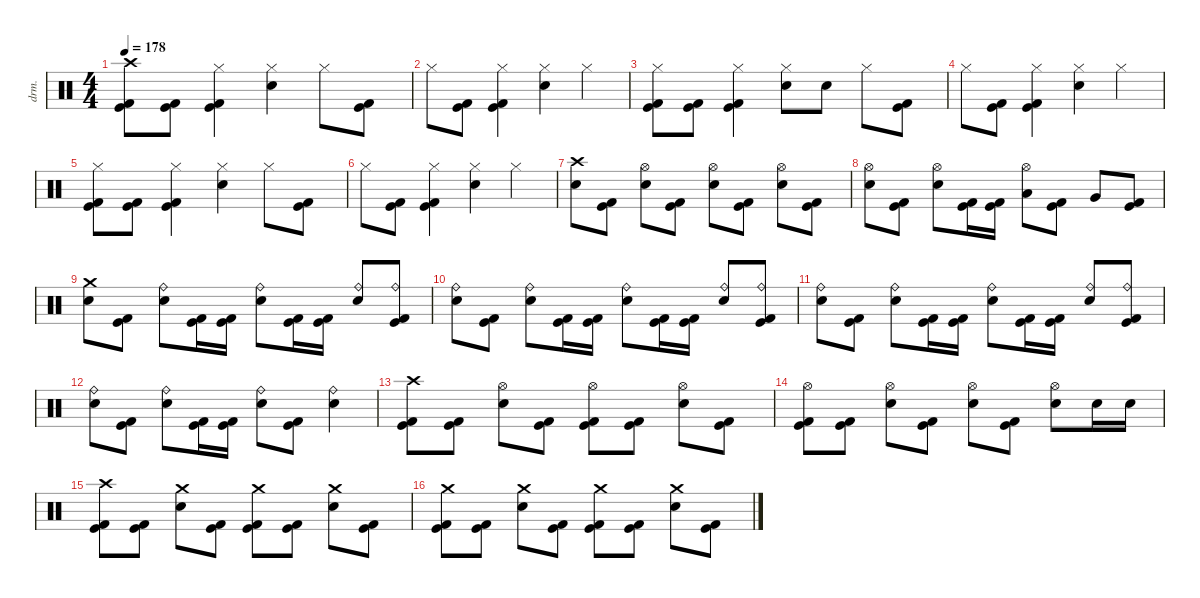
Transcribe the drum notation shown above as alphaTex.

\defaultSystemsLayout 4
\hideDynamics
\bracketExtendMode nobrackets
\otherSystemsTrackNameOrientation horizontal
\track ("Drums" "drm.") {instrument percussion}
\staff {score}
\articulation defaults
\ts (4 4)
\tempo 178
\clef neutral
\ks c
("Kick (hit)" "Kick (hit) 2" "Crash high (hit)").8{dy ff beam Down} ("Kick (hit)" "Kick (hit) 2").8{beam Down} ("Kick (hit)" "Kick (hit) 2" "Hi-Hat (closed)").4{beam Down} ("Snare (hit) 2" "Hi-Hat (closed)").4{beam Down} "Hi-Hat (closed)".8{beam Down} ("Kick (hit)" "Kick (hit) 2").8{beam Down} |
"Hi-Hat (closed)".8{beam Down} ("Kick (hit)" "Kick (hit) 2").8{beam Down} ("Kick (hit)" "Kick (hit) 2" "Hi-Hat (closed)").4{beam Down} ("Snare (hit) 2" "Hi-Hat (closed)").4{beam Down} "Hi-Hat (closed)".4{beam Down} |
("Kick (hit)" "Kick (hit) 2" "Hi-Hat (closed)").8{beam Down} ("Kick (hit)" "Kick (hit) 2").8{beam Down} ("Kick (hit)" "Kick (hit) 2" "Hi-Hat (closed)").4{beam Down} ("Snare (hit) 2" "Hi-Hat (closed)").8{beam Down} "Snare (hit) 2".8{dy f beam Down} "Hi-Hat (closed)".8{dy ff beam Down} ("Kick (hit)" "Kick (hit) 2").8{beam Down} |
"Hi-Hat (closed)".8{beam Down} ("Kick (hit)" "Kick (hit) 2").8{beam Down} ("Kick (hit)" "Kick (hit) 2" "Hi-Hat (closed)").4{beam Down} ("Snare (hit) 2" "Hi-Hat (closed)").4{beam Down} "Hi-Hat (closed)".4{beam Down} |
("Kick (hit)" "Kick (hit) 2" "Hi-Hat (closed)").8{beam Down} ("Kick (hit)" "Kick (hit) 2").8{beam Down} ("Kick (hit)" "Kick (hit) 2" "Hi-Hat (closed)").4{beam Down} ("Snare (hit) 2" "Hi-Hat (closed)").4{beam Down} "Hi-Hat (closed)".8{beam Down} ("Kick (hit)" "Kick (hit) 2").8{beam Down} |
"Hi-Hat (closed)".8{beam Down} ("Kick (hit)" "Kick (hit) 2").8{beam Down} ("Kick (hit)" "Kick (hit) 2" "Hi-Hat (closed)").4{beam Down} ("Snare (hit) 2" "Hi-Hat (closed)").4{beam Down} "Hi-Hat (closed)".4{beam Down} |
("Snare (hit) 2" "Crash high (hit)").8{beam Down} ("Kick (hit)" "Kick (hit) 2").8{beam Down} ("Snare (hit) 2" "Hi-Hat (open)").8{beam Down} ("Kick (hit)" "Kick (hit) 2").8{beam Down} ("Snare (hit) 2" "Hi-Hat (open)").8{beam Down} ("Kick (hit)" "Kick (hit) 2").8{beam Down} ("Snare (hit) 2" "Hi-Hat (open)").8{beam Down} ("Kick (hit)" "Kick (hit) 2").8{beam Down} |
("Snare (hit) 2" "Hi-Hat (open)").8{beam Down} ("Kick (hit)" "Kick (hit) 2").8{beam Down} ("Snare (hit) 2" "Hi-Hat (open)").8{beam Down} ("Kick (hit)" "Kick (hit) 2").16{beam Down} ("Kick (hit)" "Kick (hit) 2").16{beam Down} ("Low Tom (hit)" "Hi-Hat (open)").8{beam Down} ("Kick (hit)" "Kick (hit) 2").8{beam Down} "Very Low Tom (hit)".8{beam Up} ("Kick (hit)" "Kick (hit) 2").8{beam Up} |
("Snare (hit) 2" "Crash medium (hit)").8{beam Down} ("Kick (hit)" "Kick (hit) 2").8{beam Down} ("Snare (hit) 2" "Ride (bell)").8{beam Down} ("Kick (hit)" "Kick (hit) 2").16{beam Down} ("Kick (hit)" "Kick (hit) 2").16{beam Down} ("Snare (hit) 2" "Ride (bell)").8{beam Down} ("Kick (hit)" "Kick (hit) 2").16{beam Down} ("Kick (hit)" "Kick (hit) 2").16{beam Down} ("Snare (hit) 2" "Ride (bell)").8{beam Up} ("Kick (hit)" "Kick (hit) 2" "Ride (bell)").8{beam Up} |
("Snare (hit) 2" "Ride (bell)").8{beam Down} ("Kick (hit)" "Kick (hit) 2").8{beam Down} ("Snare (hit) 2" "Ride (bell)").8{beam Down} ("Kick (hit)" "Kick (hit) 2").16{beam Down} ("Kick (hit)" "Kick (hit) 2").16{beam Down} ("Snare (hit) 2" "Ride (bell)").8{beam Down} ("Kick (hit)" "Kick (hit) 2").16{beam Down} ("Kick (hit)" "Kick (hit) 2").16{beam Down} ("Snare (hit) 2" "Ride (bell)").8{beam Up} ("Kick (hit)" "Kick (hit) 2" "Ride (bell)").8{beam Up} |
("Snare (hit) 2" "Ride (bell)").8{beam Down} ("Kick (hit)" "Kick (hit) 2").8{beam Down} ("Snare (hit) 2" "Ride (bell)").8{beam Down} ("Kick (hit)" "Kick (hit) 2").16{beam Down} ("Kick (hit)" "Kick (hit) 2").16{beam Down} ("Snare (hit) 2" "Ride (bell)").8{beam Down} ("Kick (hit)" "Kick (hit) 2").16{beam Down} ("Kick (hit)" "Kick (hit) 2").16{beam Down} ("Snare (hit) 2" "Ride (bell)").8{beam Up} ("Kick (hit)" "Kick (hit) 2" "Ride (bell)").8{beam Up} |
("Snare (hit) 2" "Ride (bell)").8{beam Down} ("Kick (hit)" "Kick (hit) 2").8{beam Down} ("Snare (hit) 2" "Ride (bell)").8{beam Down} ("Kick (hit)" "Kick (hit) 2").16{beam Down} ("Kick (hit)" "Kick (hit) 2").16{beam Down} ("Snare (hit) 2" "Ride (bell)").8{beam Down} ("Kick (hit)" "Kick (hit) 2").8{beam Down} ("Snare (hit) 2" "Ride (bell)").4{beam Down} |
("Kick (hit)" "Kick (hit) 2" "Crash high (hit)").8{beam Down} ("Kick (hit)" "Kick (hit) 2").8{beam Down} ("Snare (hit) 2" "Hi-Hat (open)").8{beam Down} ("Kick (hit)" "Kick (hit) 2").8{beam Down} ("Kick (hit)" "Kick (hit) 2" "Hi-Hat (open)").8{beam Down} ("Kick (hit)" "Kick (hit) 2").8{beam Down} ("Snare (hit) 2" "Hi-Hat (open)").8{beam Down} ("Kick (hit)" "Kick (hit) 2").8{beam Down} |
("Kick (hit)" "Kick (hit) 2" "Hi-Hat (open)").8{beam Down} ("Kick (hit)" "Kick (hit) 2").8{beam Down} ("Snare (hit) 2" "Hi-Hat (open)").8{beam Down} ("Kick (hit)" "Kick (hit) 2").8{beam Down} ("Snare (hit) 2" "Hi-Hat (open)").8{beam Down} ("Kick (hit)" "Kick (hit) 2").8{beam Down} ("Snare (hit) 2" "Hi-Hat (open)").8{beam Down} "Snare (hit) 2".16{dy f beam Down} "Snare (hit) 2".16{dy ff beam Down} |
("Kick (hit)" "Kick (hit) 2" "Crash high (hit)").8{beam Down} ("Kick (hit)" "Kick (hit) 2").8{beam Down} ("Snare (hit) 2" "Crash medium (hit)").8{beam Down} ("Kick (hit)" "Kick (hit) 2").8{beam Down} ("Kick (hit)" "Kick (hit) 2" "Crash medium (hit)").8{beam Down} ("Kick (hit)" "Kick (hit) 2").8{beam Down} ("Snare (hit) 2" "Crash medium (hit)").8{beam Down} ("Kick (hit)" "Kick (hit) 2").8{beam Down} |
("Kick (hit)" "Kick (hit) 2" "Crash medium (hit)").8{beam Down} ("Kick (hit)" "Kick (hit) 2").8{beam Down} ("Snare (hit) 2" "Crash medium (hit)").8{beam Down} ("Kick (hit)" "Kick (hit) 2").8{beam Down} ("Kick (hit)" "Kick (hit) 2" "Crash medium (hit)").8{beam Down} ("Kick (hit)" "Kick (hit) 2").8{beam Down} ("Snare (hit) 2" "Crash medium (hit)").8{beam Down} ("Kick (hit)" "Kick (hit) 2").8{beam Down}
